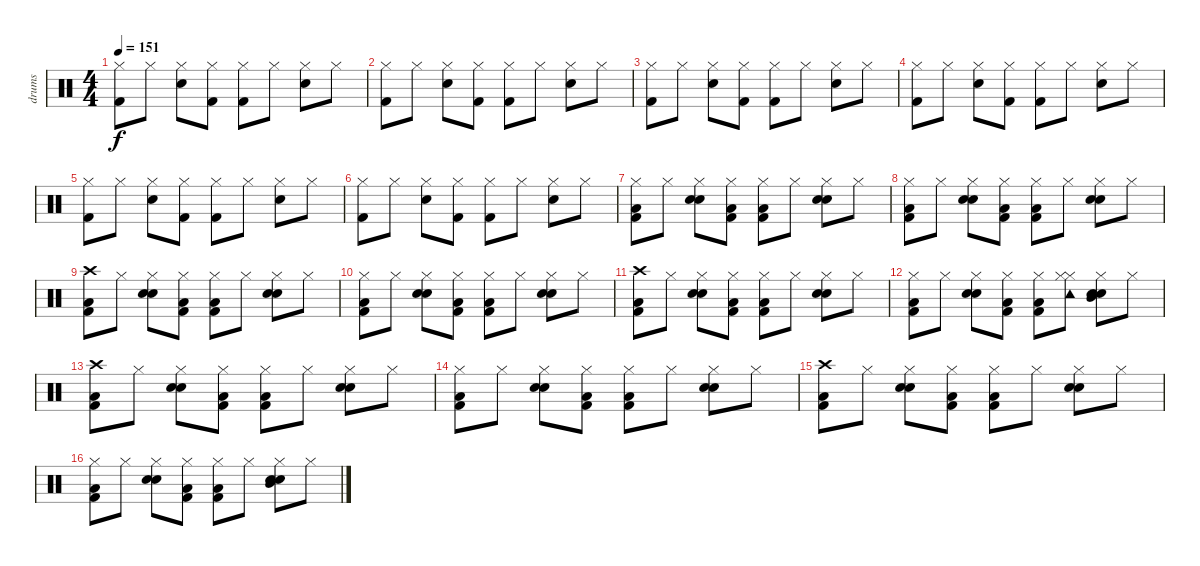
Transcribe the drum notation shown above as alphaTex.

\track ("drums" "drums") {instrument percussion}
\staff {score}
\articulation defaults
\ts (4 4)
\tempo 151
\clef neutral
\ks c
("Hi-Hat (closed)" "Kick (hit) 2").8{dy f} "Hi-Hat (closed)".8 ("Hi-Hat (closed)" "Electric Snare (hit)").8 ("Hi-Hat (closed)" "Kick (hit) 2").8 ("Hi-Hat (closed)" "Kick (hit) 2").8 "Hi-Hat (closed)".8 ("Hi-Hat (closed)" "Electric Snare (hit)").8 "Hi-Hat (closed)".8 |
("Hi-Hat (closed)" "Kick (hit) 2").8 "Hi-Hat (closed)".8 ("Hi-Hat (closed)" "Electric Snare (hit)").8 ("Hi-Hat (closed)" "Kick (hit) 2").8 ("Hi-Hat (closed)" "Kick (hit) 2").8 "Hi-Hat (closed)".8 ("Hi-Hat (closed)" "Electric Snare (hit)").8 "Hi-Hat (closed)".8 |
("Hi-Hat (closed)" "Kick (hit) 2").8 "Hi-Hat (closed)".8 ("Hi-Hat (closed)" "Electric Snare (hit)").8 ("Hi-Hat (closed)" "Kick (hit) 2").8 ("Hi-Hat (closed)" "Kick (hit) 2").8 "Hi-Hat (closed)".8 ("Hi-Hat (closed)" "Electric Snare (hit)").8 "Hi-Hat (closed)".8 |
("Hi-Hat (closed)" "Kick (hit) 2").8 "Hi-Hat (closed)".8 ("Hi-Hat (closed)" "Electric Snare (hit)").8 ("Hi-Hat (closed)" "Kick (hit) 2").8 ("Hi-Hat (closed)" "Kick (hit) 2").8 "Hi-Hat (closed)".8 ("Hi-Hat (closed)" "Electric Snare (hit)").8 "Hi-Hat (closed)".8 |
("Hi-Hat (closed)" "Kick (hit) 2").8 "Hi-Hat (closed)".8 ("Hi-Hat (closed)" "Electric Snare (hit)").8 ("Hi-Hat (closed)" "Kick (hit) 2").8 ("Hi-Hat (closed)" "Kick (hit) 2").8 "Hi-Hat (closed)".8 ("Hi-Hat (closed)" "Electric Snare (hit)").8 "Hi-Hat (closed)".8 |
("Hi-Hat (closed)" "Kick (hit) 2").8 "Hi-Hat (closed)".8 ("Hi-Hat (closed)" "Electric Snare (hit)").8 ("Hi-Hat (closed)" "Kick (hit) 2").8 ("Hi-Hat (closed)" "Kick (hit) 2").8 "Hi-Hat (closed)".8 ("Hi-Hat (closed)" "Electric Snare (hit)").8 "Hi-Hat (closed)".8 |
("Hi-Hat (closed)" "Low Floor Tom (hit)" "Kick (hit) 2").8 "Hi-Hat (closed)".8 ("Hi-Hat (closed)" "Snare (hit) 2" "Snare (hit) 2").8 ("Hi-Hat (closed)" "Low Floor Tom (hit)" "Kick (hit) 2").8 ("Hi-Hat (closed)" "Low Floor Tom (hit)" "Kick (hit) 2").8 "Hi-Hat (closed)".8 ("Hi-Hat (closed)" "Snare (hit) 2" "Snare (hit) 2").8 "Hi-Hat (closed)".8 |
("Hi-Hat (closed)" "Low Floor Tom (hit)" "Kick (hit) 2").8 "Hi-Hat (closed)".8 ("Hi-Hat (closed)" "Snare (hit) 2" "Snare (hit) 2").8 ("Hi-Hat (closed)" "Low Floor Tom (hit)" "Kick (hit) 2").8 ("Hi-Hat (closed)" "Low Floor Tom (hit)" "Kick (hit) 2").8 "Hi-Hat (closed)".8 ("Hi-Hat (closed)" "Snare (hit) 2" "Snare (hit) 2").8 "Hi-Hat (closed)".8 |
("Crash high (hit)" "Low Floor Tom (hit)" "Kick (hit) 2").8 "Hi-Hat (closed)".8 ("Hi-Hat (closed)" "Snare (hit) 2" "Snare (hit) 2").8 ("Hi-Hat (closed)" "Low Floor Tom (hit)" "Kick (hit) 2").8 ("Hi-Hat (closed)" "Low Floor Tom (hit)" "Kick (hit) 2").8 "Hi-Hat (closed)".8 ("Hi-Hat (closed)" "Snare (hit) 2" "Snare (hit) 2").8 "Hi-Hat (closed)".8 |
("Hi-Hat (closed)" "Low Floor Tom (hit)" "Kick (hit) 2").8 "Hi-Hat (closed)".8 ("Hi-Hat (closed)" "Snare (hit) 2" "Snare (hit) 2").8 ("Hi-Hat (closed)" "Low Floor Tom (hit)" "Kick (hit) 2").8 ("Hi-Hat (closed)" "Low Floor Tom (hit)" "Kick (hit) 2").8 "Hi-Hat (closed)".8 ("Hi-Hat (closed)" "Snare (hit) 2" "Snare (hit) 2").8 "Hi-Hat (closed)".8 |
("Crash high (hit)" "Low Floor Tom (hit)" "Kick (hit) 2").8 "Hi-Hat (closed)".8 ("Hi-Hat (closed)" "Snare (hit) 2" "Snare (hit) 2").8 ("Hi-Hat (closed)" "Low Floor Tom (hit)" "Kick (hit) 2").8 ("Hi-Hat (closed)" "Low Floor Tom (hit)" "Kick (hit) 2").8 "Hi-Hat (closed)".8 ("Hi-Hat (closed)" "Snare (hit) 2" "Snare (hit) 2").8 "Hi-Hat (closed)".8 |
("Hi-Hat (closed)" "Low Floor Tom (hit)" "Kick (hit) 2").8 "Hi-Hat (closed)".8 ("Hi-Hat (closed)" "Snare (hit) 2" "Snare (hit) 2").8 ("Hi-Hat (closed)" "Low Floor Tom (hit)" "Kick (hit) 2").8 ("Hi-Hat (closed)" "Low Floor Tom (hit)" "Kick (hit) 2").8 ("Tambourine (hit)" "Hi-Hat (closed)" "Hi-Hat (closed)").8 ("Hi-Hat (closed)" "Snare (hit) 2" "Snare (hit) 2" "Mid Tom (hit)").8 "Hi-Hat (closed)".8 |
("Crash high (hit)" "Low Floor Tom (hit)" "Kick (hit) 2").8 "Hi-Hat (closed)".8 ("Hi-Hat (closed)" "Snare (hit) 2" "Snare (hit) 2").8 ("Hi-Hat (closed)" "Low Floor Tom (hit)" "Kick (hit) 2").8 ("Hi-Hat (closed)" "Low Floor Tom (hit)" "Kick (hit) 2").8 "Hi-Hat (closed)".8 ("Hi-Hat (closed)" "Snare (hit) 2" "Snare (hit) 2").8 "Hi-Hat (closed)".8 |
("Hi-Hat (closed)" "Low Floor Tom (hit)" "Kick (hit) 2").8 "Hi-Hat (closed)".8 ("Hi-Hat (closed)" "Snare (hit) 2" "Snare (hit) 2").8 ("Hi-Hat (closed)" "Low Floor Tom (hit)" "Kick (hit) 2").8 ("Hi-Hat (closed)" "Low Floor Tom (hit)" "Kick (hit) 2").8 "Hi-Hat (closed)".8 ("Hi-Hat (closed)" "Snare (hit) 2" "Snare (hit) 2").8 "Hi-Hat (closed)".8 |
("Crash high (hit)" "Low Floor Tom (hit)" "Kick (hit) 2").8 "Hi-Hat (closed)".8 ("Hi-Hat (closed)" "Snare (hit) 2" "Snare (hit) 2").8 ("Hi-Hat (closed)" "Low Floor Tom (hit)" "Kick (hit) 2").8 ("Hi-Hat (closed)" "Low Floor Tom (hit)" "Kick (hit) 2").8 "Hi-Hat (closed)".8 ("Hi-Hat (closed)" "Snare (hit) 2" "Snare (hit) 2").8 "Hi-Hat (closed)".8 |
("Hi-Hat (closed)" "Low Floor Tom (hit)" "Kick (hit) 2").8 "Hi-Hat (closed)".8 ("Hi-Hat (closed)" "Snare (hit) 2" "Snare (hit) 2").8 ("Hi-Hat (closed)" "Low Floor Tom (hit)" "Kick (hit) 2").8 ("Hi-Hat (closed)" "Low Floor Tom (hit)" "Kick (hit) 2").8 "Hi-Hat (closed)".8 ("Hi-Hat (closed)" "Snare (hit) 2" "Snare (hit) 2" "Mid Tom (hit)").8 "Hi-Hat (closed)".8
